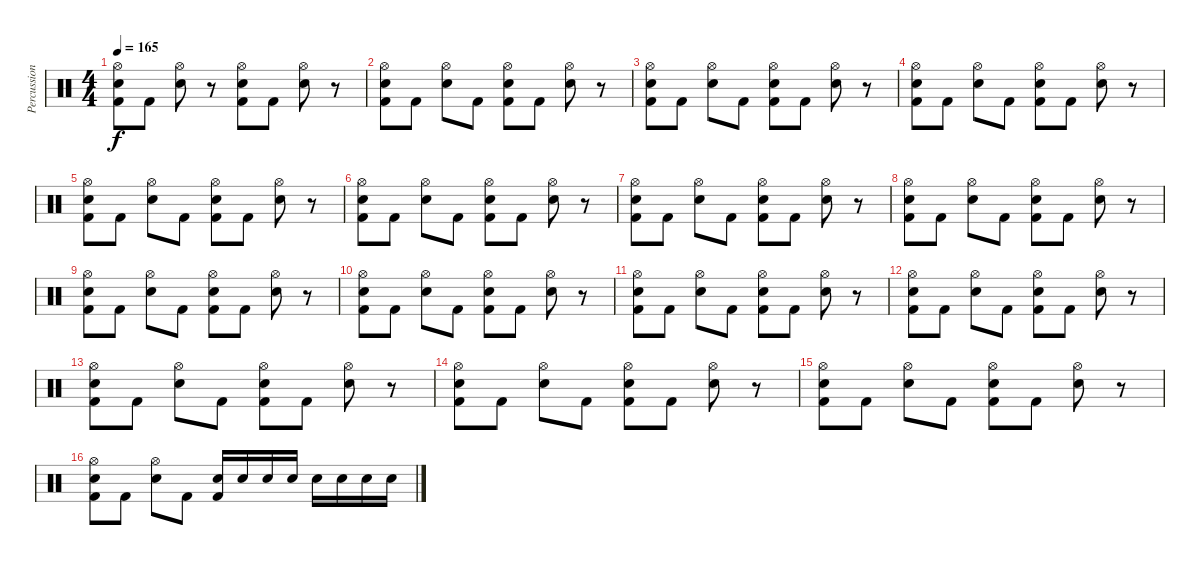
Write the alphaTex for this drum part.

\track ("Percussion" "Percussion") {instrument percussion}
\staff {score}
\articulation defaults
\ts (4 4)
\tempo 165
\clef neutral
\ks c
("Kick (hit) 2" "Electric Snare (hit)" "Hi-Hat (open)").8{dy f} "Kick (hit) 2".8 ("Electric Snare (hit)" "Hi-Hat (open)").8 r.8 ("Kick (hit) 2" "Electric Snare (hit)" "Hi-Hat (open)").8 "Kick (hit) 2".8 ("Electric Snare (hit)" "Hi-Hat (open)").8 r.8 |
("Kick (hit) 2" "Electric Snare (hit)" "Hi-Hat (open)").8 "Kick (hit) 2".8 ("Electric Snare (hit)" "Hi-Hat (open)").8 "Kick (hit) 2".8 ("Kick (hit) 2" "Electric Snare (hit)" "Hi-Hat (open)").8 "Kick (hit) 2".8 ("Electric Snare (hit)" "Hi-Hat (open)").8 r.8 |
("Kick (hit) 2" "Electric Snare (hit)" "Hi-Hat (open)").8 "Kick (hit) 2".8 ("Electric Snare (hit)" "Hi-Hat (open)").8 "Kick (hit) 2".8 ("Kick (hit) 2" "Electric Snare (hit)" "Hi-Hat (open)").8 "Kick (hit) 2".8 ("Electric Snare (hit)" "Hi-Hat (open)").8 r.8 |
("Kick (hit) 2" "Electric Snare (hit)" "Hi-Hat (open)").8 "Kick (hit) 2".8 ("Electric Snare (hit)" "Hi-Hat (open)").8 "Kick (hit) 2".8 ("Kick (hit) 2" "Electric Snare (hit)" "Hi-Hat (open)").8 "Kick (hit) 2".8 ("Electric Snare (hit)" "Hi-Hat (open)").8 r.8 |
("Kick (hit) 2" "Electric Snare (hit)" "Hi-Hat (open)").8 "Kick (hit) 2".8 ("Electric Snare (hit)" "Hi-Hat (open)").8 "Kick (hit) 2".8 ("Kick (hit) 2" "Electric Snare (hit)" "Hi-Hat (open)").8 "Kick (hit) 2".8 ("Electric Snare (hit)" "Hi-Hat (open)").8 r.8 |
("Kick (hit) 2" "Electric Snare (hit)" "Hi-Hat (open)").8 "Kick (hit) 2".8 ("Electric Snare (hit)" "Hi-Hat (open)").8 "Kick (hit) 2".8 ("Kick (hit) 2" "Electric Snare (hit)" "Hi-Hat (open)").8 "Kick (hit) 2".8 ("Electric Snare (hit)" "Hi-Hat (open)").8 r.8 |
("Kick (hit) 2" "Electric Snare (hit)" "Hi-Hat (open)").8 "Kick (hit) 2".8 ("Electric Snare (hit)" "Hi-Hat (open)").8 "Kick (hit) 2".8 ("Kick (hit) 2" "Electric Snare (hit)" "Hi-Hat (open)").8 "Kick (hit) 2".8 ("Electric Snare (hit)" "Hi-Hat (open)").8 r.8 |
("Kick (hit) 2" "Electric Snare (hit)" "Hi-Hat (open)").8 "Kick (hit) 2".8 ("Electric Snare (hit)" "Hi-Hat (open)").8 "Kick (hit) 2".8 ("Kick (hit) 2" "Electric Snare (hit)" "Hi-Hat (open)").8 "Kick (hit) 2".8 ("Electric Snare (hit)" "Hi-Hat (open)").8 r.8 |
("Kick (hit) 2" "Electric Snare (hit)" "Hi-Hat (open)").8 "Kick (hit) 2".8 ("Electric Snare (hit)" "Hi-Hat (open)").8 "Kick (hit) 2".8 ("Kick (hit) 2" "Electric Snare (hit)" "Hi-Hat (open)").8 "Kick (hit) 2".8 ("Electric Snare (hit)" "Hi-Hat (open)").8 r.8 |
("Kick (hit) 2" "Electric Snare (hit)" "Hi-Hat (open)").8 "Kick (hit) 2".8 ("Electric Snare (hit)" "Hi-Hat (open)").8 "Kick (hit) 2".8 ("Kick (hit) 2" "Electric Snare (hit)" "Hi-Hat (open)").8 "Kick (hit) 2".8 ("Electric Snare (hit)" "Hi-Hat (open)").8 r.8 |
("Kick (hit) 2" "Electric Snare (hit)" "Hi-Hat (open)").8 "Kick (hit) 2".8 ("Electric Snare (hit)" "Hi-Hat (open)").8 "Kick (hit) 2".8 ("Kick (hit) 2" "Electric Snare (hit)" "Hi-Hat (open)").8 "Kick (hit) 2".8 ("Electric Snare (hit)" "Hi-Hat (open)").8 r.8 |
("Kick (hit) 2" "Electric Snare (hit)" "Hi-Hat (open)").8 "Kick (hit) 2".8 ("Electric Snare (hit)" "Hi-Hat (open)").8 "Kick (hit) 2".8 ("Kick (hit) 2" "Electric Snare (hit)" "Hi-Hat (open)").8 "Kick (hit) 2".8 ("Electric Snare (hit)" "Hi-Hat (open)").8 r.8 |
("Kick (hit) 2" "Electric Snare (hit)" "Hi-Hat (open)").8 "Kick (hit) 2".8 ("Electric Snare (hit)" "Hi-Hat (open)").8 "Kick (hit) 2".8 ("Kick (hit) 2" "Electric Snare (hit)" "Hi-Hat (open)").8 "Kick (hit) 2".8 ("Electric Snare (hit)" "Hi-Hat (open)").8 r.8 |
("Kick (hit) 2" "Electric Snare (hit)" "Hi-Hat (open)").8 "Kick (hit) 2".8 ("Electric Snare (hit)" "Hi-Hat (open)").8 "Kick (hit) 2".8 ("Kick (hit) 2" "Electric Snare (hit)" "Hi-Hat (open)").8 "Kick (hit) 2".8 ("Electric Snare (hit)" "Hi-Hat (open)").8 r.8 |
("Kick (hit) 2" "Electric Snare (hit)" "Hi-Hat (open)").8 "Kick (hit) 2".8 ("Electric Snare (hit)" "Hi-Hat (open)").8 "Kick (hit) 2".8 ("Kick (hit) 2" "Electric Snare (hit)" "Hi-Hat (open)").8 "Kick (hit) 2".8 ("Electric Snare (hit)" "Hi-Hat (open)").8 r.8 |
("Hi-Hat (open)" "Electric Snare (hit)" "Kick (hit) 2").8 "Kick (hit) 2".8 ("Hi-Hat (open)" "Electric Snare (hit)").8 "Kick (hit) 2".8 ("Electric Snare (hit)" "Kick (hit) 2").16 "Electric Snare (hit)".16 "Electric Snare (hit)".16 "Electric Snare (hit)".16 "Electric Snare (hit)".16 "Electric Snare (hit)".16 "Electric Snare (hit)".16 "Electric Snare (hit)".16
